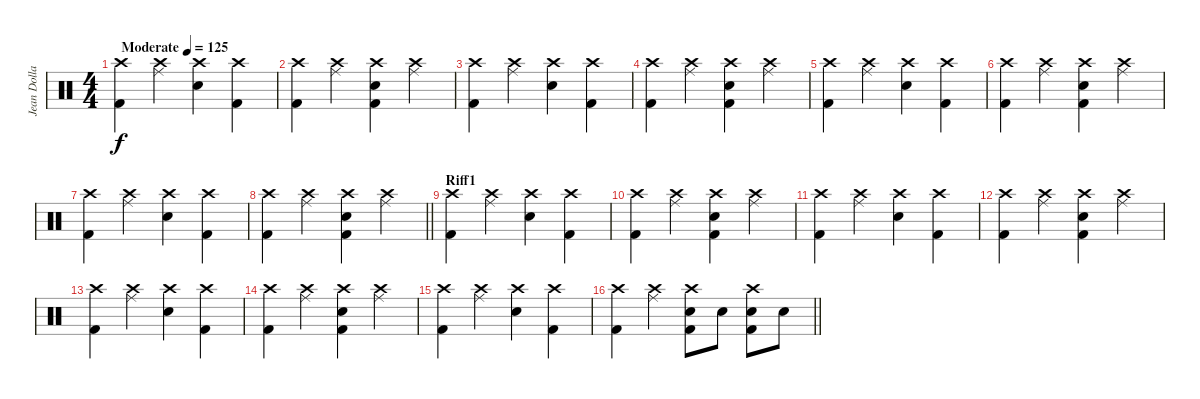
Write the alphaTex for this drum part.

\track ("Jean Dollabella" "Jean Dolla") {instrument percussion}
\staff {score}
\articulation defaults
\ts (4 4)
\tempo (125 "Moderate")
\clef neutral
\ks c
("Crash high (hit)" "Kick (hit) 2").4{dy f} ("Crash high (hit)" "Ride (middle)").4 ("Crash high (hit)" "Snare (hit) 2").4 ("Crash high (hit)" "Kick (hit) 2").4 |
("Crash high (hit)" "Kick (hit) 2").4 ("Crash high (hit)" "Ride (middle)").4 ("Crash high (hit)" "Snare (hit) 2" "Kick (hit) 2").4 ("Crash high (hit)" "Ride (middle)").4 |
("Crash high (hit)" "Kick (hit) 2").4 ("Crash high (hit)" "Ride (middle)").4 ("Crash high (hit)" "Snare (hit) 2").4 ("Crash high (hit)" "Kick (hit) 2").4 |
("Crash high (hit)" "Kick (hit) 2").4 ("Crash high (hit)" "Ride (middle)").4 ("Crash high (hit)" "Snare (hit) 2" "Kick (hit) 2").4 ("Crash high (hit)" "Ride (middle)").4 |
("Crash high (hit)" "Kick (hit) 2").4 ("Crash high (hit)" "Ride (middle)").4 ("Crash high (hit)" "Snare (hit) 2").4 ("Crash high (hit)" "Kick (hit) 2").4 |
("Crash high (hit)" "Kick (hit) 2").4 ("Crash high (hit)" "Ride (middle)").4 ("Crash high (hit)" "Snare (hit) 2" "Kick (hit) 2").4 ("Crash high (hit)" "Ride (middle)").4 |
("Crash high (hit)" "Kick (hit) 2").4 ("Crash high (hit)" "Ride (middle)").4 ("Crash high (hit)" "Snare (hit) 2").4 ("Crash high (hit)" "Kick (hit) 2").4 |
\barLineRight lightlight
("Crash high (hit)" "Kick (hit) 2").4 ("Crash high (hit)" "Ride (middle)").4 ("Crash high (hit)" "Snare (hit) 2" "Kick (hit) 2").4 ("Crash high (hit)" "Ride (middle)").4 |
\section ("" "Riff1")
("Crash high (hit)" "Kick (hit) 2").4 ("Crash high (hit)" "Ride (middle)").4 ("Crash high (hit)" "Snare (hit) 2").4 ("Crash high (hit)" "Kick (hit) 2").4 |
("Crash high (hit)" "Kick (hit) 2").4 ("Crash high (hit)" "Ride (middle)").4 ("Crash high (hit)" "Snare (hit) 2" "Kick (hit) 2").4 ("Crash high (hit)" "Ride (middle)").4 |
("Crash high (hit)" "Kick (hit) 2").4 ("Crash high (hit)" "Ride (middle)").4 ("Crash high (hit)" "Snare (hit) 2").4 ("Crash high (hit)" "Kick (hit) 2").4 |
("Crash high (hit)" "Kick (hit) 2").4 ("Crash high (hit)" "Ride (middle)").4 ("Crash high (hit)" "Snare (hit) 2" "Kick (hit) 2").4 ("Crash high (hit)" "Ride (middle)").4 |
("Crash high (hit)" "Kick (hit) 2").4 ("Crash high (hit)" "Ride (middle)").4 ("Crash high (hit)" "Snare (hit) 2").4 ("Crash high (hit)" "Kick (hit) 2").4 |
("Crash high (hit)" "Kick (hit) 2").4 ("Crash high (hit)" "Ride (middle)").4 ("Crash high (hit)" "Snare (hit) 2" "Kick (hit) 2").4 ("Crash high (hit)" "Ride (middle)").4 |
("Crash high (hit)" "Kick (hit) 2").4 ("Crash high (hit)" "Ride (middle)").4 ("Crash high (hit)" "Snare (hit) 2").4 ("Crash high (hit)" "Kick (hit) 2").4 |
\barLineRight lightlight
("Crash high (hit)" "Kick (hit) 2").4 ("Crash high (hit)" "Ride (middle)").4 ("Crash high (hit)" "Snare (hit) 2" "Kick (hit) 2").8 "Snare (hit) 2".8 ("Crash high (hit)" "Snare (hit) 2" "Kick (hit) 2").8 "Snare (hit) 2".8
